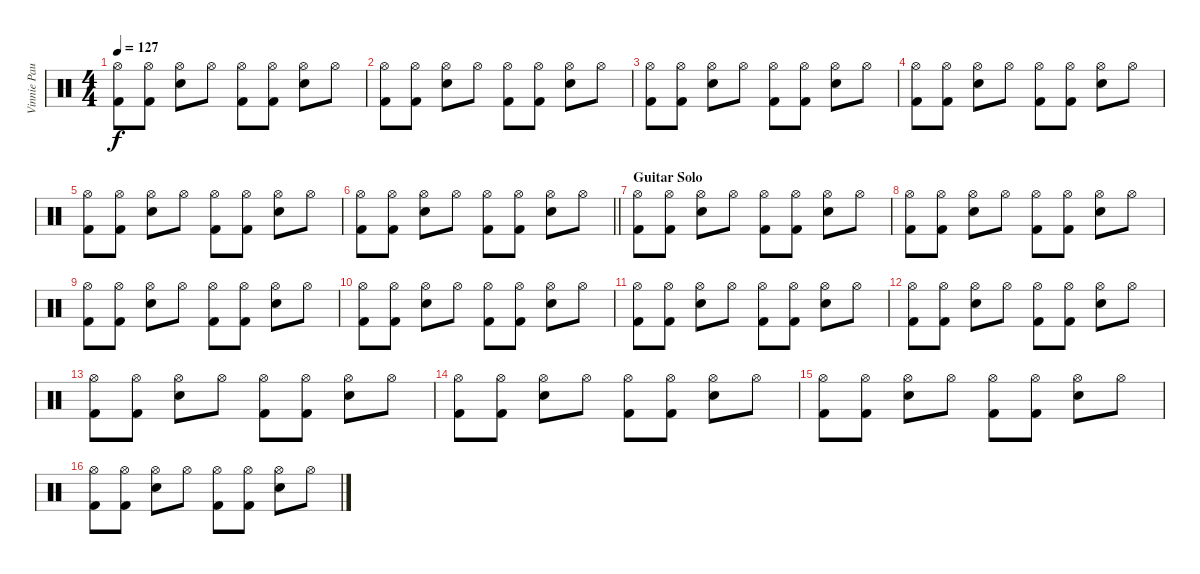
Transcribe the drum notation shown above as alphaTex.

\track ("Vinnie Paul" "Vinnie Pau") {instrument percussion}
\staff {score}
\articulation defaults
\ts (4 4)
\tempo 127
\clef neutral
\ks c
("Kick (hit) 2" "Hi-Hat (open)").8{dy f} ("Kick (hit) 2" "Hi-Hat (open)").8 ("Snare (hit) 2" "Hi-Hat (open)").8 "Hi-Hat (open)".8 ("Kick (hit) 2" "Hi-Hat (open)").8 ("Kick (hit) 2" "Hi-Hat (open)").8 ("Snare (hit) 2" "Hi-Hat (open)").8 "Hi-Hat (open)".8 |
("Kick (hit) 2" "Hi-Hat (open)").8 ("Kick (hit) 2" "Hi-Hat (open)").8 ("Snare (hit) 2" "Hi-Hat (open)").8 "Hi-Hat (open)".8 ("Kick (hit) 2" "Hi-Hat (open)").8 ("Kick (hit) 2" "Hi-Hat (open)").8 ("Snare (hit) 2" "Hi-Hat (open)").8 "Hi-Hat (open)".8 |
("Kick (hit) 2" "Hi-Hat (open)").8 ("Kick (hit) 2" "Hi-Hat (open)").8 ("Snare (hit) 2" "Hi-Hat (open)").8 "Hi-Hat (open)".8 ("Kick (hit) 2" "Hi-Hat (open)").8 ("Kick (hit) 2" "Hi-Hat (open)").8 ("Snare (hit) 2" "Hi-Hat (open)").8 "Hi-Hat (open)".8 |
("Kick (hit) 2" "Hi-Hat (open)").8 ("Kick (hit) 2" "Hi-Hat (open)").8 ("Snare (hit) 2" "Hi-Hat (open)").8 "Hi-Hat (open)".8 ("Kick (hit) 2" "Hi-Hat (open)").8 ("Kick (hit) 2" "Hi-Hat (open)").8 ("Snare (hit) 2" "Hi-Hat (open)").8 "Hi-Hat (open)".8 |
("Kick (hit) 2" "Hi-Hat (open)").8 ("Kick (hit) 2" "Hi-Hat (open)").8 ("Snare (hit) 2" "Hi-Hat (open)").8 "Hi-Hat (open)".8 ("Kick (hit) 2" "Hi-Hat (open)").8 ("Kick (hit) 2" "Hi-Hat (open)").8 ("Snare (hit) 2" "Hi-Hat (open)").8 "Hi-Hat (open)".8 |
\barLineRight lightlight
("Kick (hit) 2" "Hi-Hat (open)").8 ("Kick (hit) 2" "Hi-Hat (open)").8 ("Snare (hit) 2" "Hi-Hat (open)").8 "Hi-Hat (open)".8 ("Kick (hit) 2" "Hi-Hat (open)").8 ("Kick (hit) 2" "Hi-Hat (open)").8 ("Snare (hit) 2" "Hi-Hat (open)").8 "Hi-Hat (open)".8 |
\section ("" "Guitar Solo")
("Kick (hit) 2" "Hi-Hat (open)").8 ("Kick (hit) 2" "Hi-Hat (open)").8 ("Snare (hit) 2" "Hi-Hat (open)").8 "Hi-Hat (open)".8 ("Kick (hit) 2" "Hi-Hat (open)").8 ("Kick (hit) 2" "Hi-Hat (open)").8 ("Snare (hit) 2" "Hi-Hat (open)").8 "Hi-Hat (open)".8 |
("Kick (hit) 2" "Hi-Hat (open)").8 ("Kick (hit) 2" "Hi-Hat (open)").8 ("Snare (hit) 2" "Hi-Hat (open)").8 "Hi-Hat (open)".8 ("Kick (hit) 2" "Hi-Hat (open)").8 ("Kick (hit) 2" "Hi-Hat (open)").8 ("Snare (hit) 2" "Hi-Hat (open)").8 "Hi-Hat (open)".8 |
("Kick (hit) 2" "Hi-Hat (open)").8 ("Kick (hit) 2" "Hi-Hat (open)").8 ("Snare (hit) 2" "Hi-Hat (open)").8 "Hi-Hat (open)".8 ("Kick (hit) 2" "Hi-Hat (open)").8 ("Kick (hit) 2" "Hi-Hat (open)").8 ("Snare (hit) 2" "Hi-Hat (open)").8 "Hi-Hat (open)".8 |
("Kick (hit) 2" "Hi-Hat (open)").8 ("Kick (hit) 2" "Hi-Hat (open)").8 ("Snare (hit) 2" "Hi-Hat (open)").8 "Hi-Hat (open)".8 ("Kick (hit) 2" "Hi-Hat (open)").8 ("Kick (hit) 2" "Hi-Hat (open)").8 ("Snare (hit) 2" "Hi-Hat (open)").8 "Hi-Hat (open)".8 |
("Kick (hit) 2" "Hi-Hat (open)").8 ("Kick (hit) 2" "Hi-Hat (open)").8 ("Snare (hit) 2" "Hi-Hat (open)").8 "Hi-Hat (open)".8 ("Kick (hit) 2" "Hi-Hat (open)").8 ("Kick (hit) 2" "Hi-Hat (open)").8 ("Snare (hit) 2" "Hi-Hat (open)").8 "Hi-Hat (open)".8 |
("Kick (hit) 2" "Hi-Hat (open)").8 ("Kick (hit) 2" "Hi-Hat (open)").8 ("Snare (hit) 2" "Hi-Hat (open)").8 "Hi-Hat (open)".8 ("Kick (hit) 2" "Hi-Hat (open)").8 ("Kick (hit) 2" "Hi-Hat (open)").8 ("Snare (hit) 2" "Hi-Hat (open)").8 "Hi-Hat (open)".8 |
("Kick (hit) 2" "Hi-Hat (open)").8 ("Kick (hit) 2" "Hi-Hat (open)").8 ("Snare (hit) 2" "Hi-Hat (open)").8 "Hi-Hat (open)".8 ("Kick (hit) 2" "Hi-Hat (open)").8 ("Kick (hit) 2" "Hi-Hat (open)").8 ("Snare (hit) 2" "Hi-Hat (open)").8 "Hi-Hat (open)".8 |
("Kick (hit) 2" "Hi-Hat (open)").8 ("Kick (hit) 2" "Hi-Hat (open)").8 ("Snare (hit) 2" "Hi-Hat (open)").8 "Hi-Hat (open)".8 ("Kick (hit) 2" "Hi-Hat (open)").8 ("Kick (hit) 2" "Hi-Hat (open)").8 ("Snare (hit) 2" "Hi-Hat (open)").8 "Hi-Hat (open)".8 |
("Kick (hit) 2" "Hi-Hat (open)").8 ("Kick (hit) 2" "Hi-Hat (open)").8 ("Snare (hit) 2" "Hi-Hat (open)").8 "Hi-Hat (open)".8 ("Kick (hit) 2" "Hi-Hat (open)").8 ("Kick (hit) 2" "Hi-Hat (open)").8 ("Snare (hit) 2" "Hi-Hat (open)").8 "Hi-Hat (open)".8 |
("Kick (hit) 2" "Hi-Hat (open)").8 ("Kick (hit) 2" "Hi-Hat (open)").8 ("Snare (hit) 2" "Hi-Hat (open)").8 "Hi-Hat (open)".8 ("Kick (hit) 2" "Hi-Hat (open)").8 ("Kick (hit) 2" "Hi-Hat (open)").8 ("Snare (hit) 2" "Hi-Hat (open)").8 "Hi-Hat (open)".8
